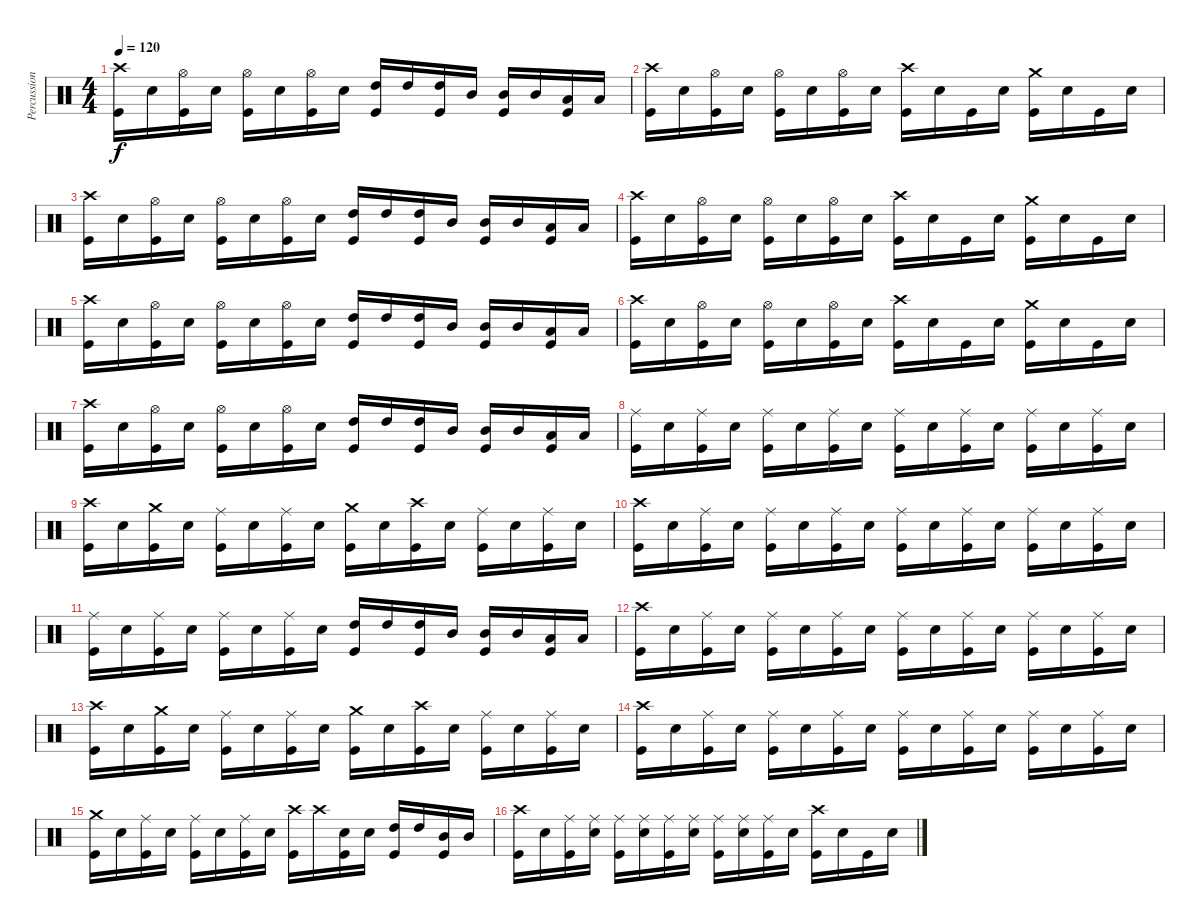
\track ("Percussioni" "Percussion") {instrument percussion}
\staff {score}
\articulation defaults
\ts (4 4)
\tempo 120
\clef neutral
\ks c
("Crash high (hit)" "Kick (hit)").16{dy f} "Electric Snare (hit)".16 ("Hi-Hat (open)" "Kick (hit)").16 "Electric Snare (hit)".16 ("Hi-Hat (open)" "Kick (hit)").16 "Electric Snare (hit)".16 ("Hi-Hat (open)" "Kick (hit)").16 "Electric Snare (hit)".16 ("High Tom (hit)" "Kick (hit)").16 "High Tom (hit)".16 ("High Tom (hit)" "Kick (hit)").16 "Mid Tom (hit)".16 ("Mid Tom (hit)" "Kick (hit)").16 "Mid Tom (hit)".16 ("Low Tom (hit)" "Kick (hit)").16 "Low Tom (hit)".16 |
("Crash high (hit)" "Kick (hit)").16 "Electric Snare (hit)".16 ("Hi-Hat (open)" "Kick (hit)").16 "Electric Snare (hit)".16 ("Hi-Hat (open)" "Kick (hit)").16 "Electric Snare (hit)".16 ("Hi-Hat (open)" "Kick (hit)").16 "Electric Snare (hit)".16 ("Crash high (hit)" "Kick (hit)").16 "Electric Snare (hit)".16 "Kick (hit)".16 "Electric Snare (hit)".16 ("Crash medium (hit)" "Kick (hit)").16 "Electric Snare (hit)".16 "Kick (hit)".16 "Electric Snare (hit)".16 |
("Crash high (hit)" "Kick (hit)").16 "Electric Snare (hit)".16 ("Hi-Hat (open)" "Kick (hit)").16 "Electric Snare (hit)".16 ("Hi-Hat (open)" "Kick (hit)").16 "Electric Snare (hit)".16 ("Hi-Hat (open)" "Kick (hit)").16 "Electric Snare (hit)".16 ("High Tom (hit)" "Kick (hit)").16 "High Tom (hit)".16 ("High Tom (hit)" "Kick (hit)").16 "Mid Tom (hit)".16 ("Mid Tom (hit)" "Kick (hit)").16 "Mid Tom (hit)".16 ("Low Tom (hit)" "Kick (hit)").16 "Low Tom (hit)".16 |
("Crash high (hit)" "Kick (hit)").16 "Electric Snare (hit)".16 ("Hi-Hat (open)" "Kick (hit)").16 "Electric Snare (hit)".16 ("Hi-Hat (open)" "Kick (hit)").16 "Electric Snare (hit)".16 ("Hi-Hat (open)" "Kick (hit)").16 "Electric Snare (hit)".16 ("Crash high (hit)" "Kick (hit)").16 "Electric Snare (hit)".16 "Kick (hit)".16 "Electric Snare (hit)".16 ("Crash medium (hit)" "Kick (hit)").16 "Electric Snare (hit)".16 "Kick (hit)".16 "Electric Snare (hit)".16 |
("Crash high (hit)" "Kick (hit)").16 "Electric Snare (hit)".16 ("Hi-Hat (open)" "Kick (hit)").16 "Electric Snare (hit)".16 ("Hi-Hat (open)" "Kick (hit)").16 "Electric Snare (hit)".16 ("Hi-Hat (open)" "Kick (hit)").16 "Electric Snare (hit)".16 ("High Tom (hit)" "Kick (hit)").16 "High Tom (hit)".16 ("High Tom (hit)" "Kick (hit)").16 "Mid Tom (hit)".16 ("Mid Tom (hit)" "Kick (hit)").16 "Mid Tom (hit)".16 ("Low Tom (hit)" "Kick (hit)").16 "Low Tom (hit)".16 |
("Crash high (hit)" "Kick (hit)").16 "Electric Snare (hit)".16 ("Hi-Hat (open)" "Kick (hit)").16 "Electric Snare (hit)".16 ("Hi-Hat (open)" "Kick (hit)").16 "Electric Snare (hit)".16 ("Hi-Hat (open)" "Kick (hit)").16 "Electric Snare (hit)".16 ("Crash high (hit)" "Kick (hit)").16 "Electric Snare (hit)".16 "Kick (hit)".16 "Electric Snare (hit)".16 ("Crash medium (hit)" "Kick (hit)").16 "Electric Snare (hit)".16 "Kick (hit)".16 "Electric Snare (hit)".16 |
("Crash high (hit)" "Kick (hit)").16 "Electric Snare (hit)".16 ("Hi-Hat (open)" "Kick (hit)").16 "Electric Snare (hit)".16 ("Hi-Hat (open)" "Kick (hit)").16 "Electric Snare (hit)".16 ("Hi-Hat (open)" "Kick (hit)").16 "Electric Snare (hit)".16 ("High Tom (hit)" "Kick (hit)").16 "High Tom (hit)".16 ("High Tom (hit)" "Kick (hit)").16 "Mid Tom (hit)".16 ("Mid Tom (hit)" "Kick (hit)").16 "Mid Tom (hit)".16 ("Low Tom (hit)" "Kick (hit)").16 "Low Tom (hit)".16 |
("Ride (middle)" "Kick (hit)").16 "Electric Snare (hit)".16 ("Ride (middle)" "Kick (hit)").16 "Electric Snare (hit)".16 ("Ride (middle)" "Kick (hit)").16 "Electric Snare (hit)".16 ("Ride (middle)" "Kick (hit)").16 "Electric Snare (hit)".16 ("Ride (middle)" "Kick (hit)").16 "Electric Snare (hit)".16 ("Ride (middle)" "Kick (hit)").16 "Electric Snare (hit)".16 ("Ride (middle)" "Kick (hit)").16 "Electric Snare (hit)".16 ("Ride (middle)" "Kick (hit)").16 "Electric Snare (hit)".16 |
("Crash high (hit)" "Kick (hit)").16 "Electric Snare (hit)".16 ("Crash medium (hit)" "Kick (hit)").16 "Electric Snare (hit)".16 ("Ride (middle)" "Kick (hit)").16 "Electric Snare (hit)".16 ("Ride (middle)" "Kick (hit)").16 "Electric Snare (hit)".16 ("Crash medium (hit)" "Kick (hit)").16 "Electric Snare (hit)".16 ("Crash high (hit)" "Kick (hit)").16 "Electric Snare (hit)".16 ("Ride (middle)" "Kick (hit)").16 "Electric Snare (hit)".16 ("Ride (middle)" "Kick (hit)").16 "Electric Snare (hit)".16 |
("Crash high (hit)" "Kick (hit)").16 "Electric Snare (hit)".16 ("Ride (middle)" "Kick (hit)").16 "Electric Snare (hit)".16 ("Ride (middle)" "Kick (hit)").16 "Electric Snare (hit)".16 ("Ride (middle)" "Kick (hit)").16 "Electric Snare (hit)".16 ("Ride (middle)" "Kick (hit)").16 "Electric Snare (hit)".16 ("Ride (middle)" "Kick (hit)").16 "Electric Snare (hit)".16 ("Ride (middle)" "Kick (hit)").16 "Electric Snare (hit)".16 ("Ride (middle)" "Kick (hit)").16 "Electric Snare (hit)".16 |
("Ride (middle)" "Kick (hit)").16 "Electric Snare (hit)".16 ("Ride (middle)" "Kick (hit)").16 "Electric Snare (hit)".16 ("Ride (middle)" "Kick (hit)").16 "Electric Snare (hit)".16 ("Ride (middle)" "Kick (hit)").16 "Electric Snare (hit)".16 ("High Tom (hit)" "Kick (hit)").16 "High Tom (hit)".16 ("High Tom (hit)" "Kick (hit)").16 "Mid Tom (hit)".16 ("Mid Tom (hit)" "Kick (hit)").16 "Mid Tom (hit)".16 ("Low Tom (hit)" "Kick (hit)").16 "Low Tom (hit)".16 |
("Crash high (hit)" "Kick (hit)").16 "Electric Snare (hit)".16 ("Ride (middle)" "Kick (hit)").16 "Electric Snare (hit)".16 ("Ride (middle)" "Kick (hit)").16 "Electric Snare (hit)".16 ("Ride (middle)" "Kick (hit)").16 "Electric Snare (hit)".16 ("Ride (middle)" "Kick (hit)").16 "Electric Snare (hit)".16 ("Ride (middle)" "Kick (hit)").16 "Electric Snare (hit)".16 ("Ride (middle)" "Kick (hit)").16 "Electric Snare (hit)".16 ("Ride (middle)" "Kick (hit)").16 "Electric Snare (hit)".16 |
("Crash high (hit)" "Kick (hit)").16 "Electric Snare (hit)".16 ("Crash medium (hit)" "Kick (hit)").16 "Electric Snare (hit)".16 ("Ride (middle)" "Kick (hit)").16 "Electric Snare (hit)".16 ("Ride (middle)" "Kick (hit)").16 "Electric Snare (hit)".16 ("Crash medium (hit)" "Kick (hit)").16 "Electric Snare (hit)".16 ("Crash high (hit)" "Kick (hit)").16 "Electric Snare (hit)".16 ("Ride (middle)" "Kick (hit)").16 "Electric Snare (hit)".16 ("Ride (middle)" "Kick (hit)").16 "Electric Snare (hit)".16 |
("Crash high (hit)" "Kick (hit)").16 "Electric Snare (hit)".16 ("Ride (middle)" "Kick (hit)").16 "Electric Snare (hit)".16 ("Ride (middle)" "Kick (hit)").16 "Electric Snare (hit)".16 ("Ride (middle)" "Kick (hit)").16 "Electric Snare (hit)".16 ("Ride (middle)" "Kick (hit)").16 "Electric Snare (hit)".16 ("Ride (middle)" "Kick (hit)").16 "Electric Snare (hit)".16 ("Ride (middle)" "Kick (hit)").16 "Electric Snare (hit)".16 ("Ride (middle)" "Kick (hit)").16 "Electric Snare (hit)".16 |
("Crash medium (hit)" "Kick (hit)").16 "Electric Snare (hit)".16 ("Ride (middle)" "Kick (hit)").16 "Electric Snare (hit)".16 ("Ride (middle)" "Kick (hit)").16 "Electric Snare (hit)".16 ("Ride (middle)" "Kick (hit)").16 "Electric Snare (hit)".16 ("Crash high (hit)" "Kick (hit)").16 "Crash high (hit)".16 ("Electric Snare (hit)" "Kick (hit)").16 "Electric Snare (hit)".16 ("High Tom (hit)" "Kick (hit)").16 "High Tom (hit)".16 ("Mid Tom (hit)" "Kick (hit)").16 "Mid Tom (hit)".16 |
("Crash high (hit)" "Kick (hit)").16 "Electric Snare (hit)".16 ("Ride (middle)" "Kick (hit)").16 ("Ride (middle)" "Electric Snare (hit)").16 ("Ride (middle)" "Kick (hit)").16 ("Ride (middle)" "Electric Snare (hit)").16 ("Ride (middle)" "Kick (hit)").16 ("Ride (middle)" "Electric Snare (hit)").16 ("Ride (middle)" "Kick (hit)").16 ("Ride (middle)" "Electric Snare (hit)").16 ("Ride (middle)" "Kick (hit)").16 "Electric Snare (hit)".16 ("Crash high (hit)" "Kick (hit)").16 "Electric Snare (hit)".16 "Kick (hit)".16 "Electric Snare (hit)".16
